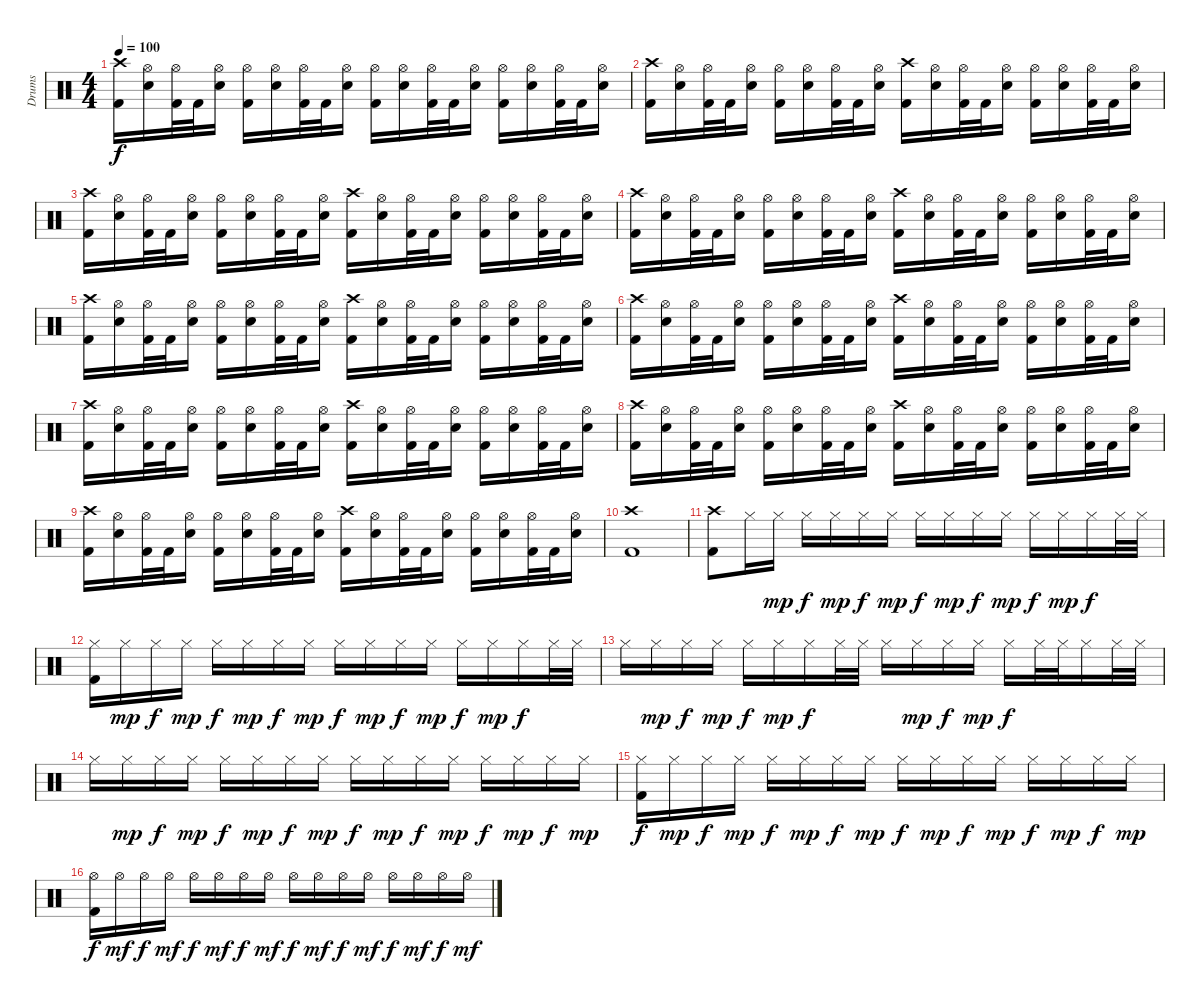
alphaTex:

\track ("Drums" "Drums") {instrument percussion}
\staff {score}
\articulation defaults
\ts (4 4)
\tempo 100
\clef neutral
\ks c
("Crash high (hit)" "Kick (hit) 2").16{dy f} ("Hi-Hat (open)" "Electric Snare (hit)").16 ("Hi-Hat (open)" "Kick (hit) 2").32 "Kick (hit) 2".32 ("Hi-Hat (open)" "Electric Snare (hit)").16 ("Hi-Hat (open)" "Kick (hit) 2").16 ("Hi-Hat (open)" "Electric Snare (hit)").16 ("Hi-Hat (open)" "Kick (hit) 2").32 "Kick (hit) 2".32 ("Hi-Hat (open)" "Electric Snare (hit)").16 ("Hi-Hat (open)" "Kick (hit) 2").16 ("Hi-Hat (open)" "Electric Snare (hit)").16 ("Hi-Hat (open)" "Kick (hit) 2").32 "Kick (hit) 2".32 ("Hi-Hat (open)" "Electric Snare (hit)").16 ("Hi-Hat (open)" "Kick (hit) 2").16 ("Hi-Hat (open)" "Electric Snare (hit)").16 ("Hi-Hat (open)" "Kick (hit) 2").32 "Kick (hit) 2".32 ("Hi-Hat (open)" "Electric Snare (hit)").16 |
("Crash high (hit)" "Kick (hit) 2").16 ("Hi-Hat (open)" "Electric Snare (hit)").16 ("Hi-Hat (open)" "Kick (hit) 2").32 "Kick (hit) 2".32 ("Hi-Hat (open)" "Electric Snare (hit)").16 ("Hi-Hat (open)" "Kick (hit) 2").16 ("Hi-Hat (open)" "Electric Snare (hit)").16 ("Hi-Hat (open)" "Kick (hit) 2").32 "Kick (hit) 2".32 ("Hi-Hat (open)" "Electric Snare (hit)").16 ("Crash high (hit)" "Kick (hit) 2").16 ("Hi-Hat (open)" "Electric Snare (hit)").16 ("Hi-Hat (open)" "Kick (hit) 2").32 "Kick (hit) 2".32 ("Hi-Hat (open)" "Electric Snare (hit)").16 ("Hi-Hat (open)" "Kick (hit) 2").16 ("Hi-Hat (open)" "Electric Snare (hit)").16 ("Hi-Hat (open)" "Kick (hit) 2").32 "Kick (hit) 2".32 ("Hi-Hat (open)" "Electric Snare (hit)").16 |
("Crash high (hit)" "Kick (hit) 2").16 ("Hi-Hat (open)" "Electric Snare (hit)").16 ("Hi-Hat (open)" "Kick (hit) 2").32 "Kick (hit) 2".32 ("Hi-Hat (open)" "Electric Snare (hit)").16 ("Hi-Hat (open)" "Kick (hit) 2").16 ("Hi-Hat (open)" "Electric Snare (hit)").16 ("Hi-Hat (open)" "Kick (hit) 2").32 "Kick (hit) 2".32 ("Hi-Hat (open)" "Electric Snare (hit)").16 ("Crash high (hit)" "Kick (hit) 2").16 ("Hi-Hat (open)" "Electric Snare (hit)").16 ("Hi-Hat (open)" "Kick (hit) 2").32 "Kick (hit) 2".32 ("Hi-Hat (open)" "Electric Snare (hit)").16 ("Hi-Hat (open)" "Kick (hit) 2").16 ("Hi-Hat (open)" "Electric Snare (hit)").16 ("Hi-Hat (open)" "Kick (hit) 2").32 "Kick (hit) 2".32 ("Hi-Hat (open)" "Electric Snare (hit)").16 |
("Crash high (hit)" "Kick (hit) 2").16 ("Hi-Hat (open)" "Electric Snare (hit)").16 ("Hi-Hat (open)" "Kick (hit) 2").32 "Kick (hit) 2".32 ("Hi-Hat (open)" "Electric Snare (hit)").16 ("Hi-Hat (open)" "Kick (hit) 2").16 ("Hi-Hat (open)" "Electric Snare (hit)").16 ("Hi-Hat (open)" "Kick (hit) 2").32 "Kick (hit) 2".32 ("Hi-Hat (open)" "Electric Snare (hit)").16 ("Crash high (hit)" "Kick (hit) 2").16 ("Hi-Hat (open)" "Electric Snare (hit)").16 ("Hi-Hat (open)" "Kick (hit) 2").32 "Kick (hit) 2".32 ("Hi-Hat (open)" "Electric Snare (hit)").16 ("Hi-Hat (open)" "Kick (hit) 2").16 ("Hi-Hat (open)" "Electric Snare (hit)").16 ("Hi-Hat (open)" "Kick (hit) 2").32 "Kick (hit) 2".32 ("Hi-Hat (open)" "Electric Snare (hit)").16 |
("Crash high (hit)" "Kick (hit) 2").16 ("Hi-Hat (open)" "Electric Snare (hit)").16 ("Hi-Hat (open)" "Kick (hit) 2").32 "Kick (hit) 2".32 ("Hi-Hat (open)" "Electric Snare (hit)").16 ("Hi-Hat (open)" "Kick (hit) 2").16 ("Hi-Hat (open)" "Electric Snare (hit)").16 ("Hi-Hat (open)" "Kick (hit) 2").32 "Kick (hit) 2".32 ("Hi-Hat (open)" "Electric Snare (hit)").16 ("Crash high (hit)" "Kick (hit) 2").16 ("Hi-Hat (open)" "Electric Snare (hit)").16 ("Hi-Hat (open)" "Kick (hit) 2").32 "Kick (hit) 2".32 ("Hi-Hat (open)" "Electric Snare (hit)").16 ("Hi-Hat (open)" "Kick (hit) 2").16 ("Hi-Hat (open)" "Electric Snare (hit)").16 ("Hi-Hat (open)" "Kick (hit) 2").32 "Kick (hit) 2".32 ("Hi-Hat (open)" "Electric Snare (hit)").16 |
("Crash high (hit)" "Kick (hit) 2").16 ("Hi-Hat (open)" "Electric Snare (hit)").16 ("Hi-Hat (open)" "Kick (hit) 2").32 "Kick (hit) 2".32 ("Hi-Hat (open)" "Electric Snare (hit)").16 ("Hi-Hat (open)" "Kick (hit) 2").16 ("Hi-Hat (open)" "Electric Snare (hit)").16 ("Hi-Hat (open)" "Kick (hit) 2").32 "Kick (hit) 2".32 ("Hi-Hat (open)" "Electric Snare (hit)").16 ("Crash high (hit)" "Kick (hit) 2").16 ("Hi-Hat (open)" "Electric Snare (hit)").16 ("Hi-Hat (open)" "Kick (hit) 2").32 "Kick (hit) 2".32 ("Hi-Hat (open)" "Electric Snare (hit)").16 ("Hi-Hat (open)" "Kick (hit) 2").16 ("Hi-Hat (open)" "Electric Snare (hit)").16 ("Hi-Hat (open)" "Kick (hit) 2").32 "Kick (hit) 2".32 ("Hi-Hat (open)" "Electric Snare (hit)").16 |
("Crash high (hit)" "Kick (hit) 2").16 ("Hi-Hat (open)" "Electric Snare (hit)").16 ("Hi-Hat (open)" "Kick (hit) 2").32 "Kick (hit) 2".32 ("Hi-Hat (open)" "Electric Snare (hit)").16 ("Hi-Hat (open)" "Kick (hit) 2").16 ("Hi-Hat (open)" "Electric Snare (hit)").16 ("Hi-Hat (open)" "Kick (hit) 2").32 "Kick (hit) 2".32 ("Hi-Hat (open)" "Electric Snare (hit)").16 ("Crash high (hit)" "Kick (hit) 2").16 ("Hi-Hat (open)" "Electric Snare (hit)").16 ("Hi-Hat (open)" "Kick (hit) 2").32 "Kick (hit) 2".32 ("Hi-Hat (open)" "Electric Snare (hit)").16 ("Hi-Hat (open)" "Kick (hit) 2").16 ("Hi-Hat (open)" "Electric Snare (hit)").16 ("Hi-Hat (open)" "Kick (hit) 2").32 "Kick (hit) 2".32 ("Hi-Hat (open)" "Electric Snare (hit)").16 |
("Crash high (hit)" "Kick (hit) 2").16 ("Hi-Hat (open)" "Electric Snare (hit)").16 ("Hi-Hat (open)" "Kick (hit) 2").32 "Kick (hit) 2".32 ("Hi-Hat (open)" "Electric Snare (hit)").16 ("Hi-Hat (open)" "Kick (hit) 2").16 ("Hi-Hat (open)" "Electric Snare (hit)").16 ("Hi-Hat (open)" "Kick (hit) 2").32 "Kick (hit) 2".32 ("Hi-Hat (open)" "Electric Snare (hit)").16 ("Crash high (hit)" "Kick (hit) 2").16 ("Hi-Hat (open)" "Electric Snare (hit)").16 ("Hi-Hat (open)" "Kick (hit) 2").32 "Kick (hit) 2".32 ("Hi-Hat (open)" "Electric Snare (hit)").16 ("Hi-Hat (open)" "Kick (hit) 2").16 ("Hi-Hat (open)" "Electric Snare (hit)").16 ("Hi-Hat (open)" "Kick (hit) 2").32 "Kick (hit) 2".32 ("Hi-Hat (open)" "Electric Snare (hit)").16 |
("Crash high (hit)" "Kick (hit) 2").16 ("Hi-Hat (open)" "Electric Snare (hit)").16 ("Hi-Hat (open)" "Kick (hit) 2").32 "Kick (hit) 2".32 ("Hi-Hat (open)" "Electric Snare (hit)").16 ("Hi-Hat (open)" "Kick (hit) 2").16 ("Hi-Hat (open)" "Electric Snare (hit)").16 ("Hi-Hat (open)" "Kick (hit) 2").32 "Kick (hit) 2".32 ("Hi-Hat (open)" "Electric Snare (hit)").16 ("Crash high (hit)" "Kick (hit) 2").16 ("Hi-Hat (open)" "Electric Snare (hit)").16 ("Hi-Hat (open)" "Kick (hit) 2").32 "Kick (hit) 2".32 ("Hi-Hat (open)" "Electric Snare (hit)").16 ("Hi-Hat (open)" "Kick (hit) 2").16 ("Hi-Hat (open)" "Electric Snare (hit)").16 ("Hi-Hat (open)" "Kick (hit) 2").32 "Kick (hit) 2".32 ("Hi-Hat (open)" "Electric Snare (hit)").16 |
("Crash high (hit)" "Kick (hit) 2").1 |
("Crash high (hit)" "Kick (hit) 2").8 "Hi-Hat (closed)".16 "Hi-Hat (closed)".16{dy mp} "Hi-Hat (closed)".16{dy f} "Hi-Hat (closed)".16{dy mp} "Hi-Hat (closed)".16{dy f} "Hi-Hat (closed)".16{dy mp} "Hi-Hat (closed)".16{dy f} "Hi-Hat (closed)".16{dy mp} "Hi-Hat (closed)".16{dy f} "Hi-Hat (closed)".16{dy mp} "Hi-Hat (closed)".16{dy f} "Hi-Hat (closed)".16{dy mp} "Hi-Hat (closed)".16{dy f} "Hi-Hat (closed)".32 "Hi-Hat (closed)".32 |
("Hi-Hat (closed)" "Kick (hit) 2").16 "Hi-Hat (closed)".16{dy mp} "Hi-Hat (closed)".16{dy f} "Hi-Hat (closed)".16{dy mp} "Hi-Hat (closed)".16{dy f} "Hi-Hat (closed)".16{dy mp} "Hi-Hat (closed)".16{dy f} "Hi-Hat (closed)".16{dy mp} "Hi-Hat (closed)".16{dy f} "Hi-Hat (closed)".16{dy mp} "Hi-Hat (closed)".16{dy f} "Hi-Hat (closed)".16{dy mp} "Hi-Hat (closed)".16{dy f} "Hi-Hat (closed)".16{dy mp} "Hi-Hat (closed)".16{dy f} "Hi-Hat (closed)".32 "Hi-Hat (closed)".32 |
"Hi-Hat (closed)".16 "Hi-Hat (closed)".16{dy mp} "Hi-Hat (closed)".16{dy f} "Hi-Hat (closed)".16{dy mp} "Hi-Hat (closed)".16{dy f} "Hi-Hat (closed)".16{dy mp} "Hi-Hat (closed)".16{dy f} "Hi-Hat (closed)".32 "Hi-Hat (closed)".32 "Hi-Hat (closed)".16 "Hi-Hat (closed)".16{dy mp} "Hi-Hat (closed)".16{dy f} "Hi-Hat (closed)".16{dy mp} "Hi-Hat (closed)".16{dy f} "Hi-Hat (closed)".32 "Hi-Hat (closed)".32 "Hi-Hat (closed)".16 "Hi-Hat (closed)".32 "Hi-Hat (closed)".32 |
"Hi-Hat (closed)".16 "Hi-Hat (closed)".16{dy mp} "Hi-Hat (closed)".16{dy f} "Hi-Hat (closed)".16{dy mp} "Hi-Hat (closed)".16{dy f} "Hi-Hat (closed)".16{dy mp} "Hi-Hat (closed)".16{dy f} "Hi-Hat (closed)".16{dy mp} "Hi-Hat (closed)".16{dy f} "Hi-Hat (closed)".16{dy mp} "Hi-Hat (closed)".16{dy f} "Hi-Hat (closed)".16{dy mp} "Hi-Hat (closed)".16{dy f} "Hi-Hat (closed)".16{dy mp} "Hi-Hat (closed)".16{dy f} "Hi-Hat (closed)".16{dy mp} |
("Hi-Hat (closed)" "Kick (hit) 2").16{dy f} "Hi-Hat (closed)".16{dy mp} "Hi-Hat (closed)".16{dy f} "Hi-Hat (closed)".16{dy mp} "Hi-Hat (closed)".16{dy f} "Hi-Hat (closed)".16{dy mp} "Hi-Hat (closed)".16{dy f} "Hi-Hat (closed)".16{dy mp} "Hi-Hat (closed)".16{dy f} "Hi-Hat (closed)".16{dy mp} "Hi-Hat (closed)".16{dy f} "Hi-Hat (closed)".16{dy mp} "Hi-Hat (closed)".16{dy f} "Hi-Hat (closed)".16{dy mp} "Hi-Hat (closed)".16{dy f} "Hi-Hat (closed)".16{dy mp} |
("Hi-Hat (open)" "Kick (hit) 2").16{dy f} "Hi-Hat (open)".16{dy mf} "Hi-Hat (open)".16{dy f} "Hi-Hat (open)".16{dy mf} "Hi-Hat (open)".16{dy f} "Hi-Hat (open)".16{dy mf} "Hi-Hat (open)".16{dy f} "Hi-Hat (open)".16{dy mf} "Hi-Hat (open)".16{dy f} "Hi-Hat (open)".16{dy mf} "Hi-Hat (open)".16{dy f} "Hi-Hat (open)".16{dy mf} "Hi-Hat (open)".16{dy f} "Hi-Hat (open)".16{dy mf} "Hi-Hat (open)".16{dy f} "Hi-Hat (open)".16{dy mf}
